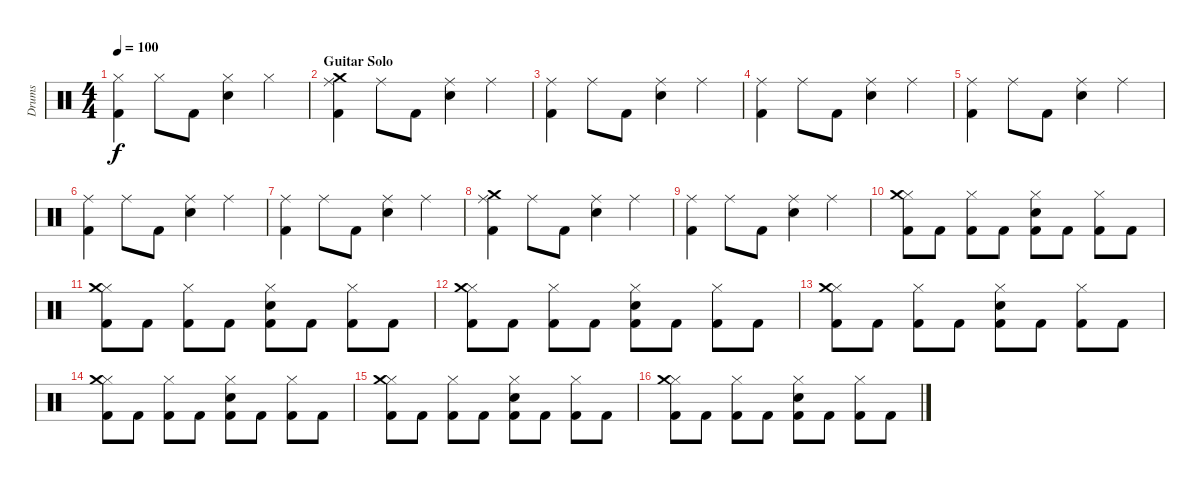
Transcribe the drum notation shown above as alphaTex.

\track ("Drums" "Drums") {instrument percussion}
\staff {score}
\articulation defaults
\ts (4 4)
\tempo 100
\clef neutral
\ks c
("Hi-Hat (closed)" "Kick (hit) 2").4{dy f} "Hi-Hat (closed)".8 "Kick (hit) 2".8 ("Hi-Hat (closed)" "Electric Snare (hit)").4 "Hi-Hat (closed)".4 |
\section ("" "Guitar Solo")
("Ride (middle)" "Crash medium (hit)" "Kick (hit) 2").4 "Ride (middle)".8 "Kick (hit) 2".8 ("Ride (middle)" "Electric Snare (hit)").4 "Ride (middle)".4 |
("Ride (middle)" "Kick (hit) 2").4 "Ride (middle)".8 "Kick (hit) 2".8 ("Ride (middle)" "Electric Snare (hit)").4 "Ride (middle)".4 |
("Ride (middle)" "Kick (hit) 2").4 "Ride (middle)".8 "Kick (hit) 2".8 ("Ride (middle)" "Electric Snare (hit)").4 "Ride (middle)".4 |
("Ride (middle)" "Kick (hit) 2").4 "Ride (middle)".8 "Kick (hit) 2".8 ("Ride (middle)" "Electric Snare (hit)").4 "Ride (middle)".4 |
("Ride (middle)" "Kick (hit) 2").4 "Ride (middle)".8 "Kick (hit) 2".8 ("Ride (middle)" "Electric Snare (hit)").4 "Ride (middle)".4 |
("Ride (middle)" "Kick (hit) 2").4 "Ride (middle)".8 "Kick (hit) 2".8 ("Ride (middle)" "Electric Snare (hit)").4 "Ride (middle)".4 |
("Ride (middle)" "Crash medium (hit)" "Kick (hit) 2").4 "Ride (middle)".8 "Kick (hit) 2".8 ("Ride (middle)" "Electric Snare (hit)").4 "Ride (middle)".4 |
("Ride (middle)" "Kick (hit) 2").4 "Ride (middle)".8 "Kick (hit) 2".8 ("Ride (middle)" "Electric Snare (hit)").4 "Ride (middle)".4 |
("Hi-Hat (closed)" "Crash medium (hit)" "Kick (hit) 2").8 "Kick (hit) 2".8 ("Hi-Hat (closed)" "Kick (hit) 2").8 "Kick (hit) 2".8 ("Hi-Hat (closed)" "Snare (hit) 2" "Kick (hit) 2").8 "Kick (hit) 2".8 ("Hi-Hat (closed)" "Kick (hit) 2").8 "Kick (hit) 2".8 |
("Hi-Hat (closed)" "Crash medium (hit)" "Kick (hit) 2").8 "Kick (hit) 2".8 ("Hi-Hat (closed)" "Kick (hit) 2").8 "Kick (hit) 2".8 ("Hi-Hat (closed)" "Snare (hit) 2" "Kick (hit) 2").8 "Kick (hit) 2".8 ("Hi-Hat (closed)" "Kick (hit) 2").8 "Kick (hit) 2".8 |
("Hi-Hat (closed)" "Crash medium (hit)" "Kick (hit) 2").8 "Kick (hit) 2".8 ("Hi-Hat (closed)" "Kick (hit) 2").8 "Kick (hit) 2".8 ("Hi-Hat (closed)" "Snare (hit) 2" "Kick (hit) 2").8 "Kick (hit) 2".8 ("Hi-Hat (closed)" "Kick (hit) 2").8 "Kick (hit) 2".8 |
("Hi-Hat (closed)" "Crash medium (hit)" "Kick (hit) 2").8 "Kick (hit) 2".8 ("Hi-Hat (closed)" "Kick (hit) 2").8 "Kick (hit) 2".8 ("Hi-Hat (closed)" "Snare (hit) 2" "Kick (hit) 2").8 "Kick (hit) 2".8 ("Hi-Hat (closed)" "Kick (hit) 2").8 "Kick (hit) 2".8 |
("Hi-Hat (closed)" "Crash medium (hit)" "Kick (hit) 2").8 "Kick (hit) 2".8 ("Hi-Hat (closed)" "Kick (hit) 2").8 "Kick (hit) 2".8 ("Hi-Hat (closed)" "Snare (hit) 2" "Kick (hit) 2").8 "Kick (hit) 2".8 ("Hi-Hat (closed)" "Kick (hit) 2").8 "Kick (hit) 2".8 |
("Hi-Hat (closed)" "Crash medium (hit)" "Kick (hit) 2").8 "Kick (hit) 2".8 ("Hi-Hat (closed)" "Kick (hit) 2").8 "Kick (hit) 2".8 ("Hi-Hat (closed)" "Snare (hit) 2" "Kick (hit) 2").8 "Kick (hit) 2".8 ("Hi-Hat (closed)" "Kick (hit) 2").8 "Kick (hit) 2".8 |
("Hi-Hat (closed)" "Crash medium (hit)" "Kick (hit) 2").8 "Kick (hit) 2".8 ("Hi-Hat (closed)" "Kick (hit) 2").8 "Kick (hit) 2".8 ("Hi-Hat (closed)" "Snare (hit) 2" "Kick (hit) 2").8 "Kick (hit) 2".8 ("Hi-Hat (closed)" "Kick (hit) 2").8 "Kick (hit) 2".8
